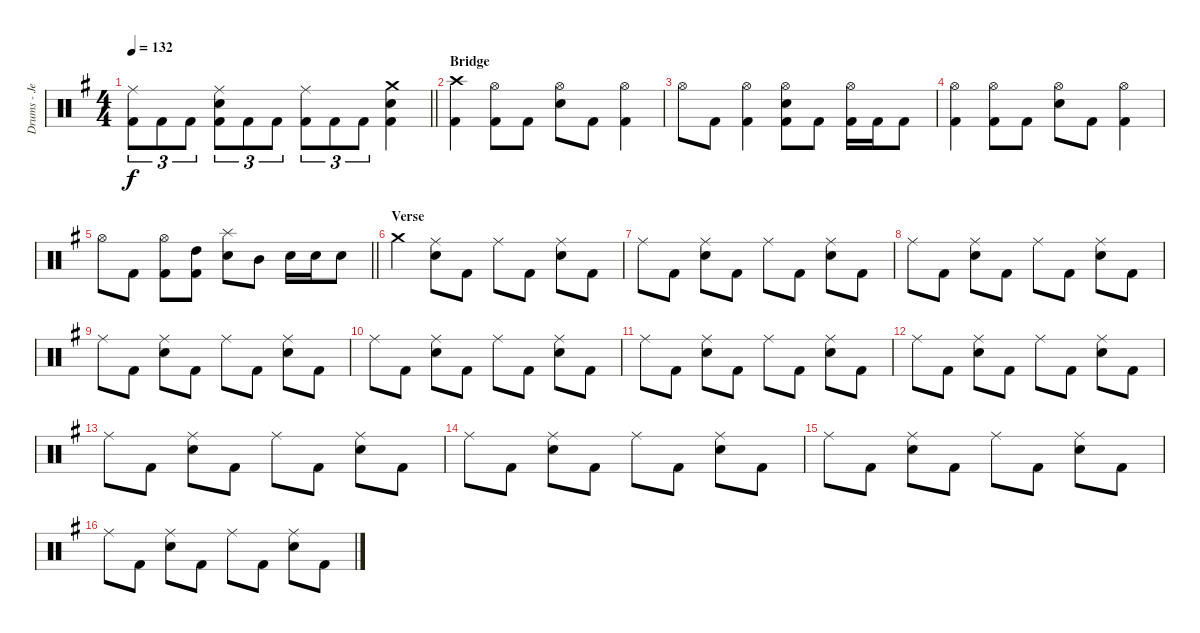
\track ("Drums - Jeroen Simons " "Drums - Je") {instrument percussion}
\staff {score}
\articulation defaults
\ts (4 4)
\tempo 132
\clef neutral
\barLineRight lightlight
\ks g
("Ride (middle)" "Kick (hit) 2").8{tu (3 2) dy f} "Kick (hit) 2".8{tu (3 2)} "Kick (hit) 2".8{tu (3 2)} ("Ride (middle)" "Electric Snare (hit)" "Kick (hit) 2").8{tu (3 2)} "Kick (hit) 2".8{tu (3 2)} "Kick (hit) 2".8{tu (3 2)} ("Ride (middle)" "Kick (hit) 2").8{tu (3 2)} "Kick (hit) 2".8{tu (3 2)} "Kick (hit) 2".8{tu (3 2)} ("Crash medium (hit)" "Electric Snare (hit)" "Kick (hit) 2").4 |
\section ("" "Bridge")
("Crash high (hit)" "Kick (hit) 2").4 ("Hi-Hat (open)" "Kick (hit) 2").8 "Kick (hit) 2".8 ("Hi-Hat (open)" "Electric Snare (hit)").8 "Kick (hit) 2".8 ("Hi-Hat (open)" "Kick (hit) 2").4 |
"Hi-Hat (open)".8 "Kick (hit) 2".8 ("Hi-Hat (open)" "Kick (hit) 2").4 ("Hi-Hat (open)" "Electric Snare (hit)" "Kick (hit) 2").8 "Kick (hit) 2".8 ("Hi-Hat (open)" "Kick (hit) 2").16 "Kick (hit) 2".16 "Kick (hit) 2".8 |
("Hi-Hat (open)" "Kick (hit) 2").4 ("Hi-Hat (open)" "Kick (hit) 2").8 "Kick (hit) 2".8 ("Hi-Hat (open)" "Electric Snare (hit)").8 "Kick (hit) 2".8 ("Hi-Hat (open)" "Kick (hit) 2").4 |
\barLineRight lightlight "Hi-Hat (open)".8 "Kick (hit) 2".8
("Hi-Hat (open)" "Kick (hit) 2").8 ("High Tom (hit)" "Kick (hit) 2").8 ("Splash (hit)" "Electric Snare (hit)").8 "Mid Tom (hit)".8 "Electric Snare (hit)".16 "Electric Snare (hit)".16 "Electric Snare (hit)".8 |
\section ("" "Verse")
"Crash medium (hit)".4 ("Ride (middle)" "Electric Snare (hit)").8 "Kick (hit) 2".8 "Ride (middle)".8 "Kick (hit) 2".8 ("Ride (middle)" "Electric Snare (hit)").8 "Kick (hit) 2".8 |
"Ride (middle)".8 "Kick (hit) 2".8 ("Ride (middle)" "Electric Snare (hit)").8 "Kick (hit) 2".8 "Ride (middle)".8 "Kick (hit) 2".8 ("Ride (middle)" "Electric Snare (hit)").8 "Kick (hit) 2".8 |
"Ride (middle)".8 "Kick (hit) 2".8 ("Ride (middle)" "Electric Snare (hit)").8 "Kick (hit) 2".8 "Ride (middle)".8 "Kick (hit) 2".8 ("Ride (middle)" "Electric Snare (hit)").8 "Kick (hit) 2".8 |
"Ride (middle)".8 "Kick (hit) 2".8 ("Ride (middle)" "Electric Snare (hit)").8 "Kick (hit) 2".8 "Ride (middle)".8 "Kick (hit) 2".8 ("Ride (middle)" "Electric Snare (hit)").8 "Kick (hit) 2".8 |
"Ride (middle)".8 "Kick (hit) 2".8 ("Ride (middle)" "Electric Snare (hit)").8 "Kick (hit) 2".8 "Ride (middle)".8 "Kick (hit) 2".8 ("Ride (middle)" "Electric Snare (hit)").8 "Kick (hit) 2".8 |
"Ride (middle)".8 "Kick (hit) 2".8 ("Ride (middle)" "Electric Snare (hit)").8 "Kick (hit) 2".8 "Ride (middle)".8 "Kick (hit) 2".8 ("Ride (middle)" "Electric Snare (hit)").8 "Kick (hit) 2".8 |
"Ride (middle)".8 "Kick (hit) 2".8 ("Ride (middle)" "Electric Snare (hit)").8 "Kick (hit) 2".8 "Ride (middle)".8 "Kick (hit) 2".8 ("Ride (middle)" "Electric Snare (hit)").8 "Kick (hit) 2".8 |
"Ride (middle)".8 "Kick (hit) 2".8 ("Ride (middle)" "Electric Snare (hit)").8 "Kick (hit) 2".8 "Ride (middle)".8 "Kick (hit) 2".8 ("Ride (middle)" "Electric Snare (hit)").8 "Kick (hit) 2".8 |
"Ride (middle)".8 "Kick (hit) 2".8 ("Ride (middle)" "Electric Snare (hit)").8 "Kick (hit) 2".8 "Ride (middle)".8 "Kick (hit) 2".8 ("Ride (middle)" "Electric Snare (hit)").8 "Kick (hit) 2".8 |
"Ride (middle)".8 "Kick (hit) 2".8 ("Ride (middle)" "Electric Snare (hit)").8 "Kick (hit) 2".8 "Ride (middle)".8 "Kick (hit) 2".8 ("Ride (middle)" "Electric Snare (hit)").8 "Kick (hit) 2".8 |
"Ride (middle)".8 "Kick (hit) 2".8 ("Ride (middle)" "Electric Snare (hit)").8 "Kick (hit) 2".8 "Ride (middle)".8 "Kick (hit) 2".8 ("Ride (middle)" "Electric Snare (hit)").8 "Kick (hit) 2".8
